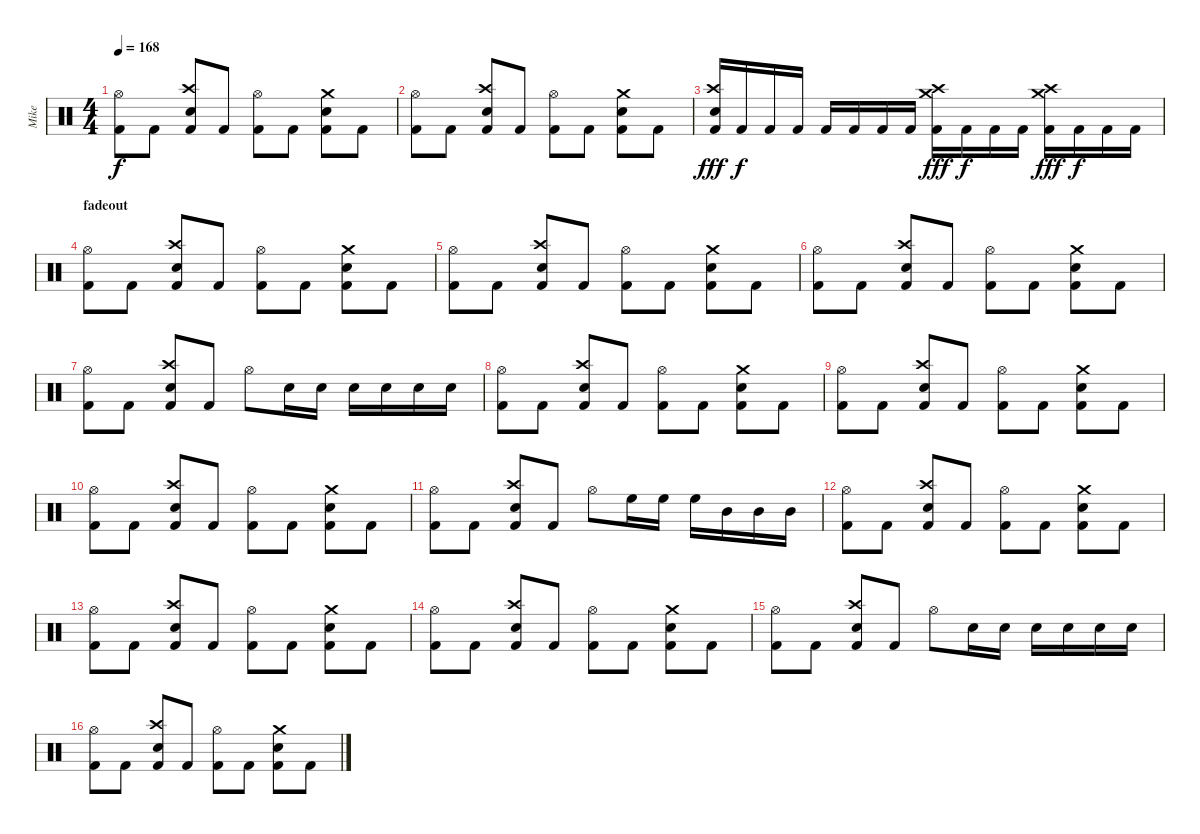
\track ("Mike" "Mike") {instrument percussion}
\staff {score}
\articulation defaults
\ts (4 4)
\tempo 168
\clef neutral
\ks c
("Hi-Hat (open)" "Kick (hit) 2").8{dy f} "Kick (hit) 2".8 ("Crash high (hit)" "Snare (hit) 2" "Kick (hit) 2").8 "Kick (hit) 2".8 ("Hi-Hat (open)" "Kick (hit) 2").8 "Kick (hit) 2".8 ("Crash medium (hit)" "Snare (hit) 2" "Kick (hit) 2").8 "Kick (hit) 2".8 |
("Hi-Hat (open)" "Kick (hit) 2").8 "Kick (hit) 2".8 ("Crash high (hit)" "Snare (hit) 2" "Kick (hit) 2").8 "Kick (hit) 2".8 ("Hi-Hat (open)" "Kick (hit) 2").8 "Kick (hit) 2".8 ("Crash medium (hit)" "Snare (hit) 2" "Kick (hit) 2").8 "Kick (hit) 2".8 |
("Crash high (hit)" "Snare (hit) 2" "Kick (hit) 2").16{dy fff} "Kick (hit) 2".16{dy f} "Kick (hit) 2".16 "Kick (hit) 2".16 "Kick (hit) 2".16 "Kick (hit) 2".16 "Kick (hit) 2".16 "Kick (hit) 2".16 ("Crash medium (hit)" "Crash high (hit)" "Kick (hit) 2").16{dy fff} "Kick (hit) 2".16{dy f} "Kick (hit) 2".16 "Kick (hit) 2".16 ("Crash high (hit)" "Crash medium (hit)" "Kick (hit) 2").16{dy fff} "Kick (hit) 2".16{dy f} "Kick (hit) 2".16 "Kick (hit) 2".16 |
\section ("" "fadeout")
("Hi-Hat (open)" "Kick (hit) 2").8{volume 13} "Kick (hit) 2".8 ("Crash high (hit)" "Snare (hit) 2" "Kick (hit) 2").8 "Kick (hit) 2".8 ("Hi-Hat (open)" "Kick (hit) 2").8 "Kick (hit) 2".8 ("Crash medium (hit)" "Snare (hit) 2" "Kick (hit) 2").8 "Kick (hit) 2".8 |
("Hi-Hat (open)" "Kick (hit) 2").8 "Kick (hit) 2".8 ("Crash high (hit)" "Snare (hit) 2" "Kick (hit) 2").8 "Kick (hit) 2".8 ("Hi-Hat (open)" "Kick (hit) 2").8 "Kick (hit) 2".8 ("Crash medium (hit)" "Snare (hit) 2" "Kick (hit) 2").8 "Kick (hit) 2".8 |
("Hi-Hat (open)" "Kick (hit) 2").8{volume 12} "Kick (hit) 2".8 ("Crash high (hit)" "Snare (hit) 2" "Kick (hit) 2").8 "Kick (hit) 2".8 ("Hi-Hat (open)" "Kick (hit) 2").8 "Kick (hit) 2".8 ("Crash medium (hit)" "Snare (hit) 2" "Kick (hit) 2").8 "Kick (hit) 2".8 |
("Hi-Hat (open)" "Kick (hit) 2").8 "Kick (hit) 2".8 ("Crash high (hit)" "Snare (hit) 2" "Kick (hit) 2").8 "Kick (hit) 2".8 "Hi-Hat (open)".8 "Snare (hit) 2".16 "Snare (hit) 2".16 "Snare (hit) 2".16 "Snare (hit) 2".16 "Snare (hit) 2".16 "Snare (hit) 2".16 |
("Hi-Hat (open)" "Kick (hit) 2").8{volume 11} "Kick (hit) 2".8 ("Crash high (hit)" "Snare (hit) 2" "Kick (hit) 2").8 "Kick (hit) 2".8 ("Hi-Hat (open)" "Kick (hit) 2").8 "Kick (hit) 2".8 ("Crash medium (hit)" "Snare (hit) 2" "Kick (hit) 2").8 "Kick (hit) 2".8 |
("Hi-Hat (open)" "Kick (hit) 2").8 "Kick (hit) 2".8 ("Crash high (hit)" "Snare (hit) 2" "Kick (hit) 2").8 "Kick (hit) 2".8 ("Hi-Hat (open)" "Kick (hit) 2").8 "Kick (hit) 2".8 ("Crash medium (hit)" "Snare (hit) 2" "Kick (hit) 2").8 "Kick (hit) 2".8 |
("Hi-Hat (open)" "Kick (hit) 2").8{volume 9} "Kick (hit) 2".8 ("Crash high (hit)" "Snare (hit) 2" "Kick (hit) 2").8 "Kick (hit) 2".8 ("Hi-Hat (open)" "Kick (hit) 2").8 "Kick (hit) 2".8 ("Crash medium (hit)" "Snare (hit) 2" "Kick (hit) 2").8 "Kick (hit) 2".8 |
("Hi-Hat (open)" "Kick (hit) 2").8 "Kick (hit) 2".8 ("Crash high (hit)" "Snare (hit) 2" "Kick (hit) 2").8 "Kick (hit) 2".8 "Hi-Hat (open)".8 "High Floor Tom (hit)".16 "High Floor Tom (hit)".16 "High Floor Tom (hit)".16 "Mid Tom (hit)".16 "Mid Tom (hit)".16 "Mid Tom (hit)".16 |
("Hi-Hat (open)" "Kick (hit) 2").8{volume 8} "Kick (hit) 2".8 ("Crash high (hit)" "Snare (hit) 2" "Kick (hit) 2").8 "Kick (hit) 2".8 ("Hi-Hat (open)" "Kick (hit) 2").8 "Kick (hit) 2".8 ("Crash medium (hit)" "Snare (hit) 2" "Kick (hit) 2").8 "Kick (hit) 2".8 |
("Hi-Hat (open)" "Kick (hit) 2").8 "Kick (hit) 2".8 ("Crash high (hit)" "Snare (hit) 2" "Kick (hit) 2").8 "Kick (hit) 2".8 ("Hi-Hat (open)" "Kick (hit) 2").8 "Kick (hit) 2".8 ("Crash medium (hit)" "Snare (hit) 2" "Kick (hit) 2").8 "Kick (hit) 2".8 |
("Hi-Hat (open)" "Kick (hit) 2").8 "Kick (hit) 2".8{volume 7} ("Crash high (hit)" "Snare (hit) 2" "Kick (hit) 2").8 "Kick (hit) 2".8 ("Hi-Hat (open)" "Kick (hit) 2").8 "Kick (hit) 2".8 ("Crash medium (hit)" "Snare (hit) 2" "Kick (hit) 2").8 "Kick (hit) 2".8 |
("Hi-Hat (open)" "Kick (hit) 2").8 "Kick (hit) 2".8 ("Crash high (hit)" "Snare (hit) 2" "Kick (hit) 2").8 "Kick (hit) 2".8 "Hi-Hat (open)".8 "Snare (hit) 2".16 "Snare (hit) 2".16 "Snare (hit) 2".16 "Snare (hit) 2".16 "Snare (hit) 2".16 "Snare (hit) 2".16 |
("Hi-Hat (open)" "Kick (hit) 2").8 "Kick (hit) 2".8{volume 6} ("Crash high (hit)" "Snare (hit) 2" "Kick (hit) 2").8 "Kick (hit) 2".8 ("Hi-Hat (open)" "Kick (hit) 2").8 "Kick (hit) 2".8 ("Crash medium (hit)" "Snare (hit) 2" "Kick (hit) 2").8 "Kick (hit) 2".8
